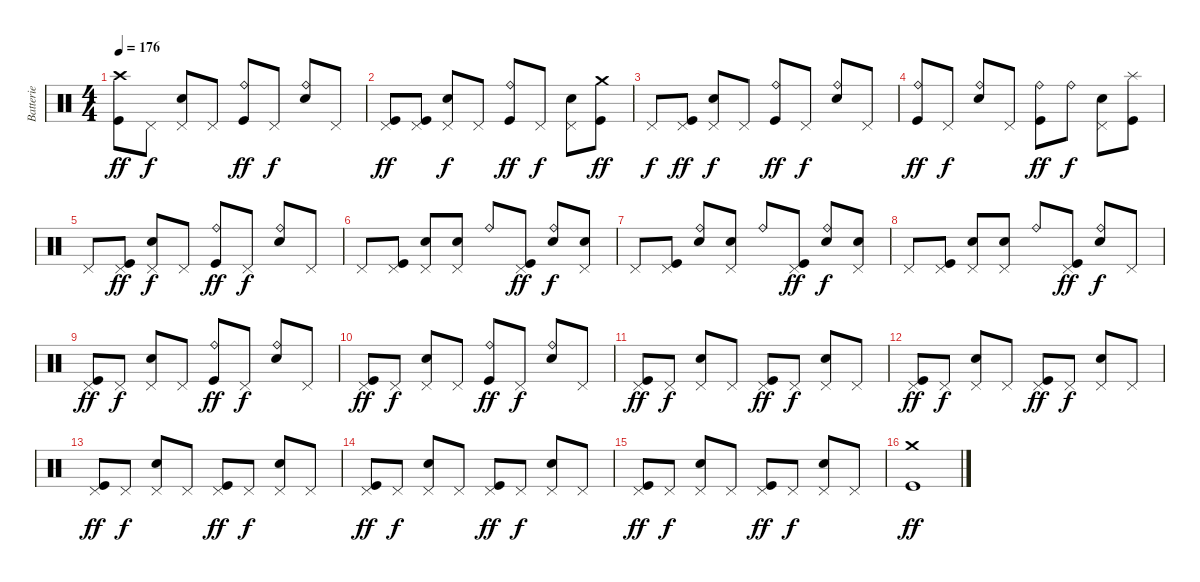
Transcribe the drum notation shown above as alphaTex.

\track ("Batterie" "Batterie") {instrument percussion}
\staff {score}
\articulation defaults
\ts (4 4)
\tempo 176
\clef neutral
\ks c
("Crash high (hit)" "Kick (hit)").8{dy ff} "Pedal Hi-Hat (hit)".8{dy f} ("Pedal Hi-Hat (hit)" "Snare (hit) 2").8 "Pedal Hi-Hat (hit)".8 ("Ride (bell)" "Kick (hit)").8{dy ff} "Pedal Hi-Hat (hit)".8{dy f} ("Ride (bell)" "Snare (hit) 2").8 "Pedal Hi-Hat (hit)".8 |
("Pedal Hi-Hat (hit)" "Kick (hit)").8{dy ff} ("Pedal Hi-Hat (hit)" "Kick (hit)").8 ("Pedal Hi-Hat (hit)" "Snare (hit) 2").8{dy f} "Pedal Hi-Hat (hit)".8 ("Ride (bell)" "Kick (hit)").8{dy ff} "Pedal Hi-Hat (hit)".8{dy f} ("Pedal Hi-Hat (hit)" "Snare (hit) 2").8 ("Crash medium (hit)" "Kick (hit)").8{dy ff} |
"Pedal Hi-Hat (hit)".8{dy f} ("Pedal Hi-Hat (hit)" "Kick (hit)").8{dy ff} ("Pedal Hi-Hat (hit)" "Snare (hit) 2").8{dy f} "Pedal Hi-Hat (hit)".8 ("Ride (bell)" "Kick (hit)").8{dy ff} "Pedal Hi-Hat (hit)".8{dy f} ("Ride (bell)" "Snare (hit) 2").8 "Pedal Hi-Hat (hit)".8 |
("Ride (bell)" "Kick (hit)").8{dy ff} "Pedal Hi-Hat (hit)".8{dy f} ("Ride (bell)" "Snare (hit) 2").8 "Pedal Hi-Hat (hit)".8 ("Ride (bell)" "Kick (hit)").8{dy ff} "Ride (bell)".8{dy f} ("Pedal Hi-Hat (hit)" "Snare (hit) 2").8 ("Splash (hit)" "Kick (hit)").8 |
"Pedal Hi-Hat (hit)".8 ("Pedal Hi-Hat (hit)" "Kick (hit)").8{dy ff} ("Pedal Hi-Hat (hit)" "Snare (hit) 2").8{dy f} "Pedal Hi-Hat (hit)".8 ("Ride (bell)" "Kick (hit)").8{dy ff} "Pedal Hi-Hat (hit)".8{dy f} ("Ride (bell)" "Snare (hit) 2").8 "Pedal Hi-Hat (hit)".8 |
"Pedal Hi-Hat (hit)".8 ("Pedal Hi-Hat (hit)" "Kick (hit)").8 ("Pedal Hi-Hat (hit)" "Snare (hit) 2").8 ("Pedal Hi-Hat (hit)" "Snare (hit) 2").8 "Ride (bell)".8 ("Pedal Hi-Hat (hit)" "Kick (hit)").8{dy ff} ("Ride (bell)" "Snare (hit) 2").8{dy f} ("Pedal Hi-Hat (hit)" "Snare (hit) 2").8 |
"Pedal Hi-Hat (hit)".8 ("Pedal Hi-Hat (hit)" "Kick (hit)").8 ("Ride (bell)" "Snare (hit) 2").8 ("Pedal Hi-Hat (hit)" "Snare (hit) 2").8 "Ride (bell)".8 ("Pedal Hi-Hat (hit)" "Kick (hit)").8{dy ff} ("Ride (bell)" "Snare (hit) 2").8{dy f} ("Pedal Hi-Hat (hit)" "Snare (hit) 2").8 |
"Pedal Hi-Hat (hit)".8 ("Pedal Hi-Hat (hit)" "Kick (hit)").8 ("Pedal Hi-Hat (hit)" "Snare (hit) 2").8 ("Pedal Hi-Hat (hit)" "Snare (hit) 2").8 "Ride (bell)".8 ("Pedal Hi-Hat (hit)" "Kick (hit)").8{dy ff} ("Ride (bell)" "Snare (hit) 2").8{dy f} "Pedal Hi-Hat (hit)".8 |
("Pedal Hi-Hat (hit)" "Kick (hit)").8{dy ff} "Pedal Hi-Hat (hit)".8{dy f} ("Pedal Hi-Hat (hit)" "Snare (hit) 2").8 "Pedal Hi-Hat (hit)".8 ("Ride (bell)" "Kick (hit)").8{dy ff} "Pedal Hi-Hat (hit)".8{dy f} ("Ride (bell)" "Snare (hit) 2").8 "Pedal Hi-Hat (hit)".8 |
("Pedal Hi-Hat (hit)" "Kick (hit)").8{dy ff} "Pedal Hi-Hat (hit)".8{dy f} ("Pedal Hi-Hat (hit)" "Snare (hit) 2").8 "Pedal Hi-Hat (hit)".8 ("Ride (bell)" "Kick (hit)").8{dy ff} "Pedal Hi-Hat (hit)".8{dy f} ("Ride (bell)" "Snare (hit) 2").8 "Pedal Hi-Hat (hit)".8 |
("Pedal Hi-Hat (hit)" "Kick (hit)").8{dy ff} "Pedal Hi-Hat (hit)".8{dy f} ("Pedal Hi-Hat (hit)" "Snare (hit) 2").8 "Pedal Hi-Hat (hit)".8 ("Pedal Hi-Hat (hit)" "Kick (hit)").8{dy ff} "Pedal Hi-Hat (hit)".8{dy f} ("Pedal Hi-Hat (hit)" "Snare (hit) 2").8 "Pedal Hi-Hat (hit)".8 |
("Pedal Hi-Hat (hit)" "Kick (hit)").8{dy ff} "Pedal Hi-Hat (hit)".8{dy f} ("Pedal Hi-Hat (hit)" "Snare (hit) 2").8 "Pedal Hi-Hat (hit)".8 ("Pedal Hi-Hat (hit)" "Kick (hit)").8{dy ff} "Pedal Hi-Hat (hit)".8{dy f} ("Pedal Hi-Hat (hit)" "Snare (hit) 2").8 "Pedal Hi-Hat (hit)".8 |
("Pedal Hi-Hat (hit)" "Kick (hit)").8{dy ff} "Pedal Hi-Hat (hit)".8{dy f} ("Pedal Hi-Hat (hit)" "Snare (hit) 2").8 "Pedal Hi-Hat (hit)".8 ("Pedal Hi-Hat (hit)" "Kick (hit)").8{dy ff} "Pedal Hi-Hat (hit)".8{dy f} ("Pedal Hi-Hat (hit)" "Snare (hit) 2").8 "Pedal Hi-Hat (hit)".8 |
("Pedal Hi-Hat (hit)" "Kick (hit)").8{dy ff} "Pedal Hi-Hat (hit)".8{dy f} ("Pedal Hi-Hat (hit)" "Snare (hit) 2").8 "Pedal Hi-Hat (hit)".8 ("Pedal Hi-Hat (hit)" "Kick (hit)").8{dy ff} "Pedal Hi-Hat (hit)".8{dy f} ("Pedal Hi-Hat (hit)" "Snare (hit) 2").8 "Pedal Hi-Hat (hit)".8 |
("Pedal Hi-Hat (hit)" "Kick (hit)").8{dy ff} "Pedal Hi-Hat (hit)".8{dy f} ("Pedal Hi-Hat (hit)" "Snare (hit) 2").8 "Pedal Hi-Hat (hit)".8 ("Pedal Hi-Hat (hit)" "Kick (hit)").8{dy ff} "Pedal Hi-Hat (hit)".8{dy f} ("Pedal Hi-Hat (hit)" "Snare (hit) 2").8 "Pedal Hi-Hat (hit)".8 |
("Crash medium (hit)" "Kick (hit)").1{dy ff}
